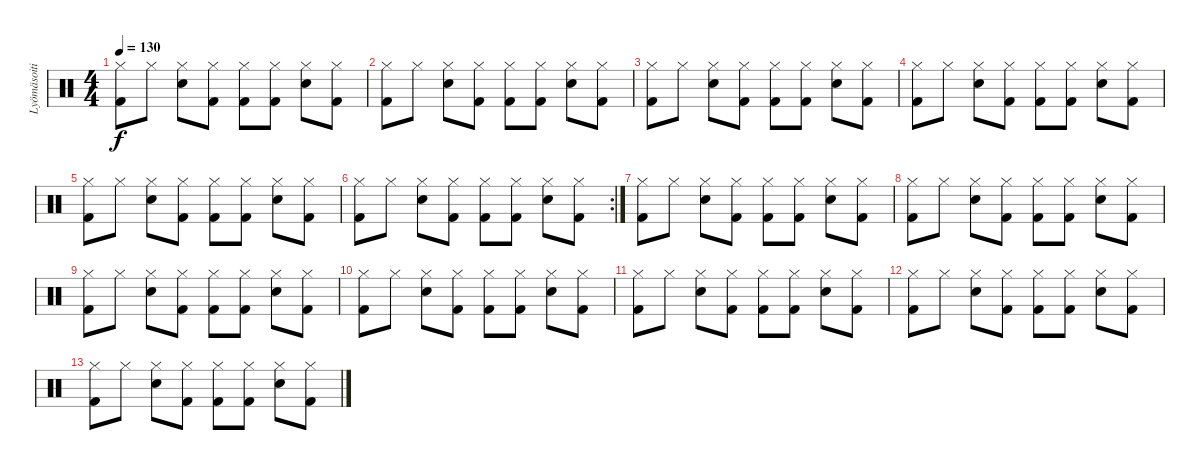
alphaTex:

\track ("Lyömäsoitin" "Lyömäsoiti") {instrument percussion}
\staff {score}
\articulation defaults
\ts (4 4)
\tempo 130
\clef neutral
\ks c
("Hi-Hat (closed)" "Kick (hit) 2").8{dy f} "Hi-Hat (closed)".8 ("Electric Snare (hit)" "Hi-Hat (closed)").8 ("Hi-Hat (closed)" "Kick (hit) 2").8 ("Hi-Hat (closed)" "Kick (hit) 2").8 ("Hi-Hat (closed)" "Kick (hit) 2").8 ("Electric Snare (hit)" "Hi-Hat (closed)").8 ("Hi-Hat (closed)" "Kick (hit) 2").8 |
("Hi-Hat (closed)" "Kick (hit) 2").8 "Hi-Hat (closed)".8 ("Electric Snare (hit)" "Hi-Hat (closed)").8 ("Hi-Hat (closed)" "Kick (hit) 2").8 ("Hi-Hat (closed)" "Kick (hit) 2").8 ("Hi-Hat (closed)" "Kick (hit) 2").8 ("Electric Snare (hit)" "Hi-Hat (closed)").8 ("Hi-Hat (closed)" "Kick (hit) 2").8 |
("Hi-Hat (closed)" "Kick (hit) 2").8 "Hi-Hat (closed)".8 ("Electric Snare (hit)" "Hi-Hat (closed)").8 ("Hi-Hat (closed)" "Kick (hit) 2").8 ("Hi-Hat (closed)" "Kick (hit) 2").8 ("Hi-Hat (closed)" "Kick (hit) 2").8 ("Electric Snare (hit)" "Hi-Hat (closed)").8 ("Hi-Hat (closed)" "Kick (hit) 2").8 |
("Hi-Hat (closed)" "Kick (hit) 2").8 "Hi-Hat (closed)".8 ("Electric Snare (hit)" "Hi-Hat (closed)").8 ("Hi-Hat (closed)" "Kick (hit) 2").8 ("Hi-Hat (closed)" "Kick (hit) 2").8 ("Hi-Hat (closed)" "Kick (hit) 2").8 ("Electric Snare (hit)" "Hi-Hat (closed)").8 ("Hi-Hat (closed)" "Kick (hit) 2").8 |
("Hi-Hat (closed)" "Kick (hit) 2").8 "Hi-Hat (closed)".8 ("Electric Snare (hit)" "Hi-Hat (closed)").8 ("Hi-Hat (closed)" "Kick (hit) 2").8 ("Hi-Hat (closed)" "Kick (hit) 2").8 ("Hi-Hat (closed)" "Kick (hit) 2").8 ("Electric Snare (hit)" "Hi-Hat (closed)").8 ("Hi-Hat (closed)" "Kick (hit) 2").8 |
\rc 2
("Hi-Hat (closed)" "Kick (hit) 2").8 "Hi-Hat (closed)".8 ("Electric Snare (hit)" "Hi-Hat (closed)").8 ("Hi-Hat (closed)" "Kick (hit) 2").8 ("Hi-Hat (closed)" "Kick (hit) 2").8 ("Hi-Hat (closed)" "Kick (hit) 2").8 ("Electric Snare (hit)" "Hi-Hat (closed)").8 ("Hi-Hat (closed)" "Kick (hit) 2").8 |
("Hi-Hat (closed)" "Kick (hit) 2").8 "Hi-Hat (closed)".8 ("Electric Snare (hit)" "Hi-Hat (closed)").8 ("Hi-Hat (closed)" "Kick (hit) 2").8 ("Hi-Hat (closed)" "Kick (hit) 2").8 ("Hi-Hat (closed)" "Kick (hit) 2").8 ("Electric Snare (hit)" "Hi-Hat (closed)").8 ("Hi-Hat (closed)" "Kick (hit) 2").8 |
("Hi-Hat (closed)" "Kick (hit) 2").8 "Hi-Hat (closed)".8 ("Electric Snare (hit)" "Hi-Hat (closed)").8 ("Hi-Hat (closed)" "Kick (hit) 2").8 ("Hi-Hat (closed)" "Kick (hit) 2").8 ("Hi-Hat (closed)" "Kick (hit) 2").8 ("Electric Snare (hit)" "Hi-Hat (closed)").8 ("Hi-Hat (closed)" "Kick (hit) 2").8 |
("Hi-Hat (closed)" "Kick (hit) 2").8 "Hi-Hat (closed)".8 ("Electric Snare (hit)" "Hi-Hat (closed)").8 ("Hi-Hat (closed)" "Kick (hit) 2").8 ("Hi-Hat (closed)" "Kick (hit) 2").8 ("Hi-Hat (closed)" "Kick (hit) 2").8 ("Electric Snare (hit)" "Hi-Hat (closed)").8 ("Hi-Hat (closed)" "Kick (hit) 2").8 |
("Hi-Hat (closed)" "Kick (hit) 2").8 "Hi-Hat (closed)".8 ("Electric Snare (hit)" "Hi-Hat (closed)").8 ("Hi-Hat (closed)" "Kick (hit) 2").8 ("Hi-Hat (closed)" "Kick (hit) 2").8 ("Hi-Hat (closed)" "Kick (hit) 2").8 ("Electric Snare (hit)" "Hi-Hat (closed)").8 ("Hi-Hat (closed)" "Kick (hit) 2").8 |
("Hi-Hat (closed)" "Kick (hit) 2").8 "Hi-Hat (closed)".8 ("Electric Snare (hit)" "Hi-Hat (closed)").8 ("Hi-Hat (closed)" "Kick (hit) 2").8 ("Hi-Hat (closed)" "Kick (hit) 2").8 ("Hi-Hat (closed)" "Kick (hit) 2").8 ("Electric Snare (hit)" "Hi-Hat (closed)").8 ("Hi-Hat (closed)" "Kick (hit) 2").8 |
("Hi-Hat (closed)" "Kick (hit) 2").8 "Hi-Hat (closed)".8 ("Electric Snare (hit)" "Hi-Hat (closed)").8 ("Hi-Hat (closed)" "Kick (hit) 2").8 ("Hi-Hat (closed)" "Kick (hit) 2").8 ("Hi-Hat (closed)" "Kick (hit) 2").8 ("Electric Snare (hit)" "Hi-Hat (closed)").8 ("Hi-Hat (closed)" "Kick (hit) 2").8 |
("Hi-Hat (closed)" "Kick (hit) 2").8 "Hi-Hat (closed)".8 ("Electric Snare (hit)" "Hi-Hat (closed)").8 ("Hi-Hat (closed)" "Kick (hit) 2").8 ("Hi-Hat (closed)" "Kick (hit) 2").8 ("Hi-Hat (closed)" "Kick (hit) 2").8 ("Electric Snare (hit)" "Hi-Hat (closed)").8 ("Hi-Hat (closed)" "Kick (hit) 2").8
